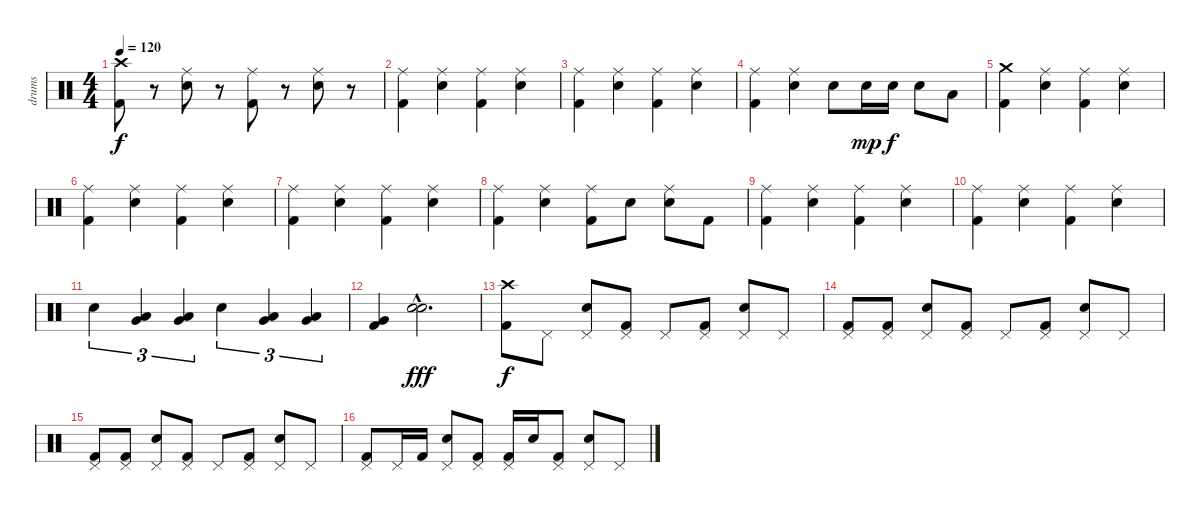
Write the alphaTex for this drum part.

\track ("drums" "drums") {instrument percussion}
\staff {score}
\articulation defaults
\ts (4 4)
\tempo 120
\clef neutral
\ks c
("Crash high (hit)" "Kick (hit) 2").8{dy f} r.8 ("Ride (middle)" "Electric Snare (hit)").8 r.8 ("Ride (middle)" "Kick (hit) 2").8 r.8 ("Ride (middle)" "Electric Snare (hit)").8 r.8 |
("Ride (middle)" "Kick (hit) 2").4 ("Ride (middle)" "Electric Snare (hit)").4 ("Ride (middle)" "Kick (hit) 2").4 ("Ride (middle)" "Electric Snare (hit)").4 |
("Ride (middle)" "Kick (hit) 2").4 ("Ride (middle)" "Electric Snare (hit)").4 ("Ride (middle)" "Kick (hit) 2").4 ("Ride (middle)" "Electric Snare (hit)").4 |
("Ride (middle)" "Kick (hit) 2").4 ("Ride (middle)" "Snare (hit) 2").4 "Electric Snare (hit)".8 "Electric Snare (hit)".16{dy mp} "Electric Snare (hit)".16{dy f} "Electric Snare (hit)".8 "Low Tom (hit)".8 |
("Crash medium (hit)" "Kick (hit) 2").4 ("Ride (middle)" "Electric Snare (hit)").4 ("Ride (middle)" "Kick (hit) 2").4 ("Ride (middle)" "Electric Snare (hit)").4 |
("Ride (middle)" "Kick (hit) 2").4 ("Ride (middle)" "Electric Snare (hit)").4 ("Ride (middle)" "Kick (hit) 2").4 ("Ride (middle)" "Electric Snare (hit)").4 |
("Ride (middle)" "Kick (hit) 2").4 ("Ride (middle)" "Electric Snare (hit)").4 ("Ride (middle)" "Kick (hit) 2").4 ("Ride (middle)" "Electric Snare (hit)").4 |
("Ride (middle)" "Kick (hit) 2").4 ("Ride (middle)" "Electric Snare (hit)").4 ("Ride (middle)" "Kick (hit) 2").8 "Electric Snare (hit)".8 ("Ride (middle)" "Electric Snare (hit)").8 "Kick (hit) 2".8 |
("Ride (middle)" "Kick (hit) 2").4 ("Ride (middle)" "Electric Snare (hit)").4 ("Ride (middle)" "Kick (hit) 2").4 ("Ride (middle)" "Electric Snare (hit)").4 |
("Ride (middle)" "Kick (hit) 2").4 ("Ride (middle)" "Electric Snare (hit)").4 ("Ride (middle)" "Kick (hit) 2").4 ("Ride (middle)" "Electric Snare (hit)").4 |
"Electric Snare (hit)".4{tu (3 2)} ("Very Low Tom (hit)" "Low Tom (hit)").4{tu (3 2)} ("Very Low Tom (hit)" "Low Tom (hit)").4{tu (3 2)} "Electric Snare (hit)".4{tu (3 2)} ("Very Low Tom (hit)" "Low Tom (hit)").4{tu (3 2)} ("Very Low Tom (hit)" "Low Tom (hit)").4{tu (3 2)} |
("Very Low Tom (hit)" "Kick (hit) 2").4 ("Electric Snare (hit)"{hac} "Electric Snare (hit)"{hac}).2{d dy fff} |
("Crash high (hit)" "Kick (hit) 2").8{dy f} "Pedal Hi-Hat (hit)".8 ("Pedal Hi-Hat (hit)" "Electric Snare (hit)").8 ("Pedal Hi-Hat (hit)" "Kick (hit) 2").8 "Pedal Hi-Hat (hit)".8 ("Pedal Hi-Hat (hit)" "Kick (hit) 2").8 ("Pedal Hi-Hat (hit)" "Electric Snare (hit)").8 "Pedal Hi-Hat (hit)".8 |
("Pedal Hi-Hat (hit)" "Kick (hit) 2").8 ("Pedal Hi-Hat (hit)" "Kick (hit) 2").8 ("Pedal Hi-Hat (hit)" "Electric Snare (hit)").8 ("Pedal Hi-Hat (hit)" "Kick (hit) 2").8 "Pedal Hi-Hat (hit)".8 ("Pedal Hi-Hat (hit)" "Kick (hit) 2").8 ("Pedal Hi-Hat (hit)" "Electric Snare (hit)").8 "Pedal Hi-Hat (hit)".8 |
("Pedal Hi-Hat (hit)" "Kick (hit) 2").8 ("Pedal Hi-Hat (hit)" "Kick (hit) 2").8 ("Pedal Hi-Hat (hit)" "Electric Snare (hit)").8 ("Pedal Hi-Hat (hit)" "Kick (hit) 2").8 "Pedal Hi-Hat (hit)".8 ("Pedal Hi-Hat (hit)" "Kick (hit) 2").8 ("Pedal Hi-Hat (hit)" "Electric Snare (hit)").8 "Pedal Hi-Hat (hit)".8 |
("Pedal Hi-Hat (hit)" "Kick (hit) 2").8 "Pedal Hi-Hat (hit)".16 "Kick (hit) 2".16 ("Pedal Hi-Hat (hit)" "Electric Snare (hit)").8 ("Pedal Hi-Hat (hit)" "Kick (hit) 2").8 ("Pedal Hi-Hat (hit)" "Kick (hit) 2").16 "Electric Snare (hit)".16 ("Pedal Hi-Hat (hit)" "Kick (hit) 2").8 ("Pedal Hi-Hat (hit)" "Electric Snare (hit)").8 "Pedal Hi-Hat (hit)".8
